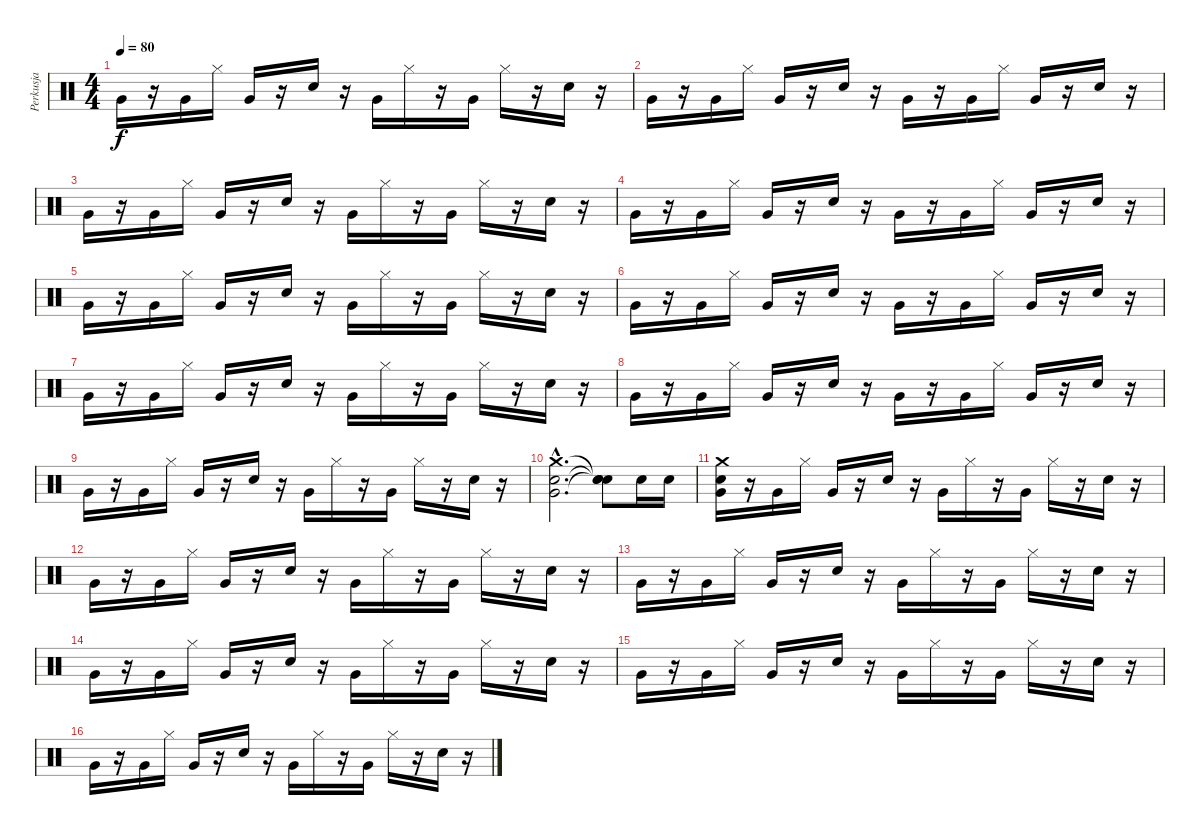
\track ("Perkusja" "Perkusja") {instrument percussion}
\staff {score}
\articulation defaults
\ts (4 4)
\tempo 80
\clef neutral
\ks c "Very Low Tom (hit)".16{dy f}
r.16 "Very Low Tom (hit)".16 "Hi-Hat (closed)".16 "Very Low Tom (hit)".16 r.16 "Snare (hit) 2".16 r.16 "Very Low Tom (hit)".16 "Hi-Hat (closed)".16 r.16 "Very Low Tom (hit)".16 "Hi-Hat (closed)".16 r.16 "Snare (hit) 2".16 r.16 |
"Very Low Tom (hit)".16 r.16 "Very Low Tom (hit)".16 "Hi-Hat (closed)".16 "Very Low Tom (hit)".16 r.16 "Snare (hit) 2".16 r.16 "Very Low Tom (hit)".16 r.16 "Very Low Tom (hit)".16 "Hi-Hat (closed)".16 "Very Low Tom (hit)".16 r.16 "Snare (hit) 2".16 r.16 |
"Very Low Tom (hit)".16 r.16 "Very Low Tom (hit)".16 "Hi-Hat (closed)".16 "Very Low Tom (hit)".16 r.16 "Snare (hit) 2".16 r.16 "Very Low Tom (hit)".16 "Hi-Hat (closed)".16 r.16 "Very Low Tom (hit)".16 "Hi-Hat (closed)".16 r.16 "Snare (hit) 2".16 r.16 |
"Very Low Tom (hit)".16 r.16 "Very Low Tom (hit)".16 "Hi-Hat (closed)".16 "Very Low Tom (hit)".16 r.16 "Snare (hit) 2".16 r.16 "Very Low Tom (hit)".16 r.16 "Very Low Tom (hit)".16 "Hi-Hat (closed)".16 "Very Low Tom (hit)".16 r.16 "Snare (hit) 2".16 r.16 |
"Very Low Tom (hit)".16 r.16 "Very Low Tom (hit)".16 "Hi-Hat (closed)".16 "Very Low Tom (hit)".16 r.16 "Snare (hit) 2".16 r.16 "Very Low Tom (hit)".16 "Hi-Hat (closed)".16 r.16 "Very Low Tom (hit)".16 "Hi-Hat (closed)".16 r.16 "Snare (hit) 2".16 r.16 |
"Very Low Tom (hit)".16 r.16 "Very Low Tom (hit)".16 "Hi-Hat (closed)".16 "Very Low Tom (hit)".16 r.16 "Snare (hit) 2".16 r.16 "Very Low Tom (hit)".16 r.16 "Very Low Tom (hit)".16 "Hi-Hat (closed)".16 "Very Low Tom (hit)".16 r.16 "Snare (hit) 2".16 r.16 |
"Very Low Tom (hit)".16 r.16 "Very Low Tom (hit)".16 "Hi-Hat (closed)".16 "Very Low Tom (hit)".16 r.16 "Snare (hit) 2".16 r.16 "Very Low Tom (hit)".16 "Hi-Hat (closed)".16 r.16 "Very Low Tom (hit)".16 "Hi-Hat (closed)".16 r.16 "Snare (hit) 2".16 r.16 |
"Very Low Tom (hit)".16 r.16 "Very Low Tom (hit)".16 "Hi-Hat (closed)".16 "Very Low Tom (hit)".16 r.16 "Snare (hit) 2".16 r.16 "Very Low Tom (hit)".16 r.16 "Very Low Tom (hit)".16 "Hi-Hat (closed)".16 "Very Low Tom (hit)".16 r.16 "Snare (hit) 2".16 r.16 |
"Very Low Tom (hit)".16 r.16 "Very Low Tom (hit)".16 "Hi-Hat (closed)".16 "Very Low Tom (hit)".16 r.16 "Snare (hit) 2".16 r.16 "Very Low Tom (hit)".16 "Hi-Hat (closed)".16 r.16 "Very Low Tom (hit)".16 "Hi-Hat (closed)".16 r.16 "Snare (hit) 2".16 r.16 |
("Snare (hit) 2"{hac} "Very Low Tom (hit)"{hac} "Crash medium (hit)"{hac}).2{d} ("Snare (hit)"{t} "Snare (hit)"{t} "Snare (hit)"{t}).8 "Snare (hit) 2".16 "Snare (hit) 2".16 |
("Snare (hit) 2" "Very Low Tom (hit)" "Crash medium (hit)").16 r.16 "Very Low Tom (hit)".16 "Hi-Hat (closed)".16 "Very Low Tom (hit)".16 r.16 "Snare (hit) 2".16 r.16 "Very Low Tom (hit)".16 "Hi-Hat (closed)".16 r.16 "Very Low Tom (hit)".16 "Hi-Hat (closed)".16 r.16 "Snare (hit) 2".16 r.16 |
"Very Low Tom (hit)".16 r.16 "Very Low Tom (hit)".16 "Hi-Hat (closed)".16 "Very Low Tom (hit)".16 r.16 "Snare (hit) 2".16 r.16 "Very Low Tom (hit)".16 "Hi-Hat (closed)".16 r.16 "Very Low Tom (hit)".16 "Hi-Hat (closed)".16 r.16 "Snare (hit) 2".16 r.16 |
"Very Low Tom (hit)".16 r.16 "Very Low Tom (hit)".16 "Hi-Hat (closed)".16 "Very Low Tom (hit)".16 r.16 "Snare (hit) 2".16 r.16 "Very Low Tom (hit)".16 "Hi-Hat (closed)".16 r.16 "Very Low Tom (hit)".16 "Hi-Hat (closed)".16 r.16 "Snare (hit) 2".16 r.16 |
"Very Low Tom (hit)".16 r.16 "Very Low Tom (hit)".16 "Hi-Hat (closed)".16 "Very Low Tom (hit)".16 r.16 "Snare (hit) 2".16 r.16 "Very Low Tom (hit)".16 "Hi-Hat (closed)".16 r.16 "Very Low Tom (hit)".16 "Hi-Hat (closed)".16 r.16 "Snare (hit) 2".16 r.16 |
"Very Low Tom (hit)".16 r.16 "Very Low Tom (hit)".16 "Hi-Hat (closed)".16 "Very Low Tom (hit)".16 r.16 "Snare (hit) 2".16 r.16 "Very Low Tom (hit)".16 "Hi-Hat (closed)".16 r.16 "Very Low Tom (hit)".16 "Hi-Hat (closed)".16 r.16 "Snare (hit) 2".16 r.16 |
"Very Low Tom (hit)".16 r.16 "Very Low Tom (hit)".16 "Hi-Hat (closed)".16 "Very Low Tom (hit)".16 r.16 "Snare (hit) 2".16 r.16 "Very Low Tom (hit)".16 "Hi-Hat (closed)".16 r.16 "Very Low Tom (hit)".16 "Hi-Hat (closed)".16 r.16 "Snare (hit) 2".16 r.16
